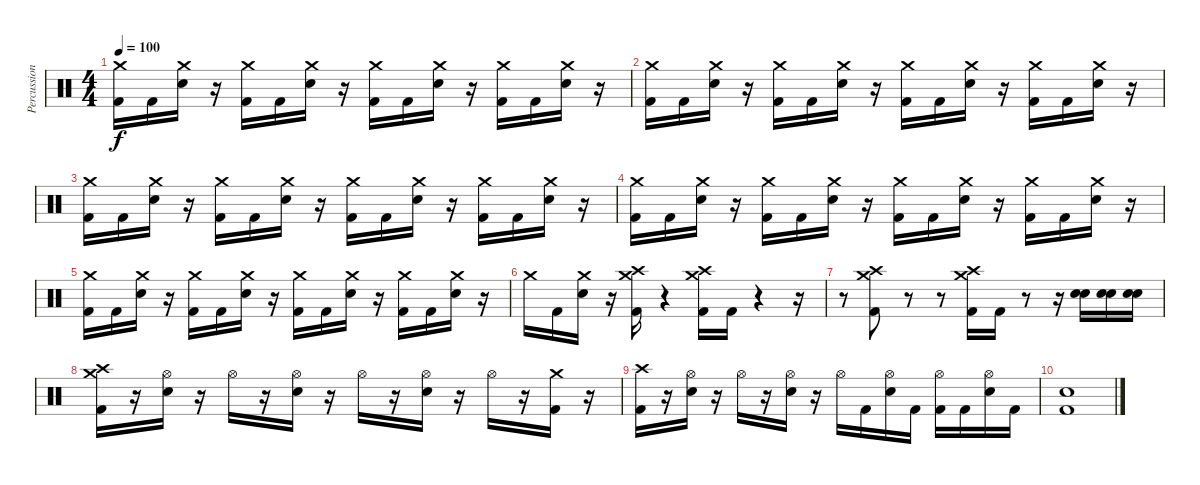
\track ("Percussion" "Percussion") {instrument percussion}
\staff {score}
\articulation defaults
\ts (4 4)
\tempo 100
\clef neutral
\ks c
("Crash medium (hit)" "Kick (hit) 2").16{dy f} "Kick (hit) 2".16 ("Crash medium (hit)" "Electric Snare (hit)").16 r.16 ("Crash medium (hit)" "Kick (hit) 2").16 "Kick (hit) 2".16 ("Crash medium (hit)" "Electric Snare (hit)").16 r.16 ("Crash medium (hit)" "Kick (hit) 2").16 "Kick (hit) 2".16 ("Crash medium (hit)" "Electric Snare (hit)").16 r.16 ("Crash medium (hit)" "Kick (hit) 2").16 "Kick (hit) 2".16 ("Crash medium (hit)" "Electric Snare (hit)").16 r.16 |
("Crash medium (hit)" "Kick (hit) 2").16 "Kick (hit) 2".16 ("Crash medium (hit)" "Electric Snare (hit)").16 r.16 ("Crash medium (hit)" "Kick (hit) 2").16 "Kick (hit) 2".16 ("Crash medium (hit)" "Electric Snare (hit)").16 r.16 ("Crash medium (hit)" "Kick (hit) 2").16 "Kick (hit) 2".16 ("Crash medium (hit)" "Electric Snare (hit)").16 r.16 ("Crash medium (hit)" "Kick (hit) 2").16 "Kick (hit) 2".16 ("Crash medium (hit)" "Electric Snare (hit)").16 r.16 |
("Crash medium (hit)" "Kick (hit) 2").16 "Kick (hit) 2".16 ("Crash medium (hit)" "Electric Snare (hit)").16 r.16 ("Crash medium (hit)" "Kick (hit) 2").16 "Kick (hit) 2".16 ("Crash medium (hit)" "Electric Snare (hit)").16 r.16 ("Crash medium (hit)" "Kick (hit) 2").16 "Kick (hit) 2".16 ("Crash medium (hit)" "Electric Snare (hit)").16 r.16 ("Crash medium (hit)" "Kick (hit) 2").16 "Kick (hit) 2".16 ("Crash medium (hit)" "Electric Snare (hit)").16 r.16 |
("Crash medium (hit)" "Kick (hit) 2").16 "Kick (hit) 2".16 ("Crash medium (hit)" "Electric Snare (hit)").16 r.16 ("Crash medium (hit)" "Kick (hit) 2").16 "Kick (hit) 2".16 ("Crash medium (hit)" "Electric Snare (hit)").16 r.16 ("Crash medium (hit)" "Kick (hit) 2").16 "Kick (hit) 2".16 ("Crash medium (hit)" "Electric Snare (hit)").16 r.16 ("Crash medium (hit)" "Kick (hit) 2").16 "Kick (hit) 2".16 ("Crash medium (hit)" "Electric Snare (hit)").16 r.16 |
("Crash medium (hit)" "Kick (hit) 2").16 "Kick (hit) 2".16 ("Crash medium (hit)" "Electric Snare (hit)").16 r.16 ("Crash medium (hit)" "Kick (hit) 2").16 "Kick (hit) 2".16 ("Crash medium (hit)" "Electric Snare (hit)").16 r.16 ("Crash medium (hit)" "Kick (hit) 2").16 "Kick (hit) 2".16 ("Crash medium (hit)" "Electric Snare (hit)").16 r.16 ("Crash medium (hit)" "Kick (hit) 2").16 "Kick (hit) 2".16 ("Crash medium (hit)" "Electric Snare (hit)").16 r.16 |
"Crash medium (hit)".16 "Kick (hit) 2".16 ("Crash medium (hit)" "Electric Snare (hit)").16 r.16 ("Crash high (hit)" "Crash medium (hit)" "Kick (hit) 2").16 r.4 ("Crash high (hit)" "Crash medium (hit)" "Kick (hit) 2").16 "Kick (hit) 2".16 r.4 r.16 |
r.8 ("Crash high (hit)" "Crash medium (hit)" "Kick (hit) 2").8 r.8 r.8 ("Crash high (hit)" "Crash medium (hit)" "Kick (hit) 2").16 "Kick (hit) 2".16 r.8 r.16 ("Electric Snare (hit)" "Electric Snare (hit)").16 ("Electric Snare (hit)" "Electric Snare (hit)").16 ("Electric Snare (hit)" "Electric Snare (hit)").16 |
("Crash high (hit)" "Crash medium (hit)" "Kick (hit) 2").16 r.16 ("Hi-Hat (open)" "Electric Snare (hit)").16 r.16 "Hi-Hat (open)".16 r.16 ("Hi-Hat (open)" "Electric Snare (hit)").16 r.16 "Hi-Hat (open)".16 r.16 ("Hi-Hat (open)" "Electric Snare (hit)").16 r.16 "Hi-Hat (open)".16 r.16 ("Crash medium (hit)" "Kick (hit) 2").16 r.16 |
("Crash high (hit)" "Kick (hit) 2").16 r.16 ("Hi-Hat (open)" "Electric Snare (hit)").16 r.16 "Hi-Hat (open)".16 r.16 ("Hi-Hat (open)" "Electric Snare (hit)").16 r.16 "Hi-Hat (open)".16 "Kick (hit) 2".16 ("Hi-Hat (open)" "Electric Snare (hit)").16 "Kick (hit) 2".16 ("Hi-Hat (open)" "Kick (hit) 2").16 "Kick (hit) 2".16 ("Hi-Hat (open)" "Electric Snare (hit)").16 "Kick (hit) 2".16 |
("Electric Snare (hit)" "Kick (hit) 2").1
